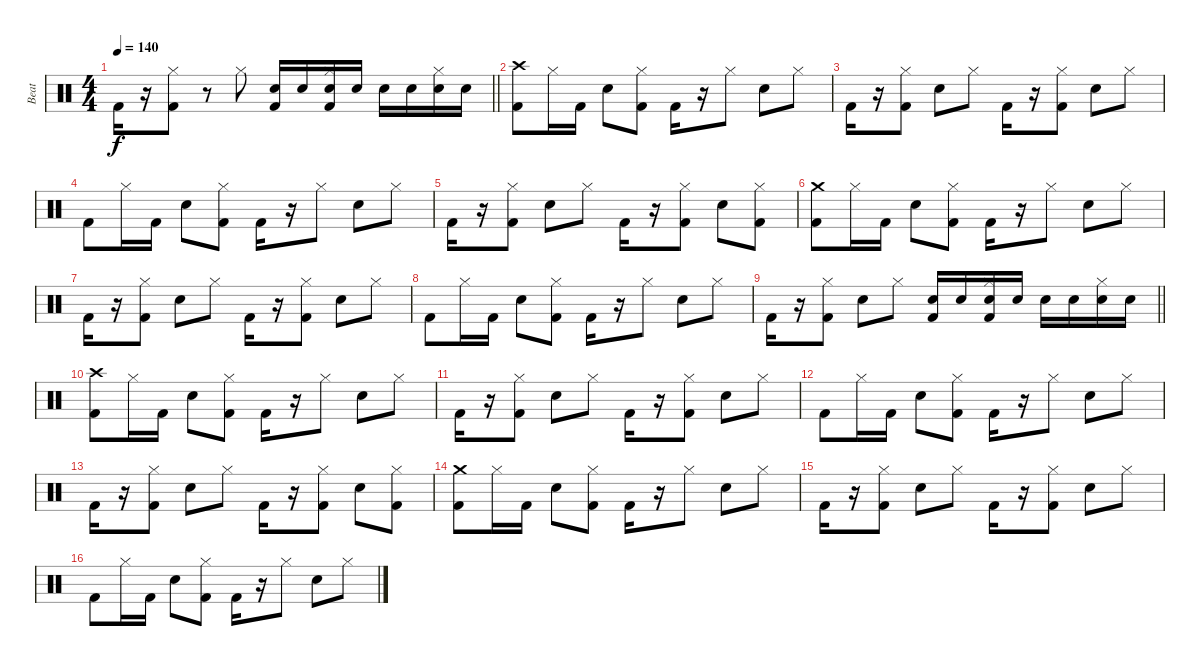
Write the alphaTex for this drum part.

\track ("Beat" "Beat") {instrument percussion}
\staff {score}
\articulation defaults
\ts (4 4)
\tempo 140
\clef neutral
\barLineRight lightlight
\ks c "Kick (hit) 2".16{dy f}
r.16 ("Kick (hit) 2" "Hi-Hat (closed)").8 r.8 "Hi-Hat (closed)".8 ("Kick (hit) 2" "Snare (hit) 2").16 "Snare (hit) 2".16 ("Kick (hit) 2" "Hi-Hat (closed)" "Snare (hit) 2").16 "Snare (hit) 2".16 "Snare (hit) 2".16 "Snare (hit) 2".16 ("Hi-Hat (closed)" "Snare (hit) 2").16 "Snare (hit) 2".16 |
\section ("" " ")
("Kick (hit) 2" "Crash high (hit)").8 "Hi-Hat (closed)".16 "Kick (hit) 2".16 "Snare (hit) 2".8 ("Kick (hit) 2" "Hi-Hat (closed)").8 "Kick (hit) 2".16 r.16 "Hi-Hat (closed)".8 "Snare (hit) 2".8 "Hi-Hat (closed)".8 |
"Kick (hit) 2".16 r.16 ("Kick (hit) 2" "Hi-Hat (closed)").8 "Snare (hit) 2".8 "Hi-Hat (closed)".8 "Kick (hit) 2".16 r.16 ("Kick (hit) 2" "Hi-Hat (closed)").8 "Snare (hit) 2".8 "Hi-Hat (closed)".8 |
"Kick (hit) 2".8 "Hi-Hat (closed)".16 "Kick (hit) 2".16 "Snare (hit) 2".8 ("Kick (hit) 2" "Hi-Hat (closed)").8 "Kick (hit) 2".16 r.16 "Hi-Hat (closed)".8 "Snare (hit) 2".8 "Hi-Hat (closed)".8 |
"Kick (hit) 2".16 r.16 ("Kick (hit) 2" "Hi-Hat (closed)").8 "Snare (hit) 2".8 "Hi-Hat (closed)".8 "Kick (hit) 2".16 r.16 ("Kick (hit) 2" "Hi-Hat (closed)").8 "Snare (hit) 2".8 ("Kick (hit) 2" "Hi-Hat (closed)").8 |
("Kick (hit) 2" "Crash medium (hit)").8 "Hi-Hat (closed)".16 "Kick (hit) 2".16 "Snare (hit) 2".8 ("Kick (hit) 2" "Hi-Hat (closed)").8 "Kick (hit) 2".16 r.16 "Hi-Hat (closed)".8 "Snare (hit) 2".8 "Hi-Hat (closed)".8 |
"Kick (hit) 2".16 r.16 ("Kick (hit) 2" "Hi-Hat (closed)").8 "Snare (hit) 2".8 "Hi-Hat (closed)".8 "Kick (hit) 2".16 r.16 ("Kick (hit) 2" "Hi-Hat (closed)").8 "Snare (hit) 2".8 "Hi-Hat (closed)".8 |
"Kick (hit) 2".8 "Hi-Hat (closed)".16 "Kick (hit) 2".16 "Snare (hit) 2".8 ("Kick (hit) 2" "Hi-Hat (closed)").8 "Kick (hit) 2".16 r.16 "Hi-Hat (closed)".8 "Snare (hit) 2".8 "Hi-Hat (closed)".8 |
\barLineRight lightlight "Kick (hit) 2".16
r.16 ("Kick (hit) 2" "Hi-Hat (closed)").8 "Snare (hit) 2".8 "Hi-Hat (closed)".8 ("Kick (hit) 2" "Snare (hit) 2").16 "Snare (hit) 2".16 ("Kick (hit) 2" "Hi-Hat (closed)" "Snare (hit) 2").16 "Snare (hit) 2".16 "Snare (hit) 2".16 "Snare (hit) 2".16 ("Hi-Hat (closed)" "Snare (hit) 2").16 "Snare (hit) 2".16 |
\section ("" " ")
("Kick (hit) 2" "Crash high (hit)").8 "Hi-Hat (closed)".16 "Kick (hit) 2".16 "Snare (hit) 2".8 ("Kick (hit) 2" "Hi-Hat (closed)").8 "Kick (hit) 2".16 r.16 "Hi-Hat (closed)".8 "Snare (hit) 2".8 "Hi-Hat (closed)".8 |
"Kick (hit) 2".16 r.16 ("Kick (hit) 2" "Hi-Hat (closed)").8 "Snare (hit) 2".8 "Hi-Hat (closed)".8 "Kick (hit) 2".16 r.16 ("Kick (hit) 2" "Hi-Hat (closed)").8 "Snare (hit) 2".8 "Hi-Hat (closed)".8 |
"Kick (hit) 2".8 "Hi-Hat (closed)".16 "Kick (hit) 2".16 "Snare (hit) 2".8 ("Kick (hit) 2" "Hi-Hat (closed)").8 "Kick (hit) 2".16 r.16 "Hi-Hat (closed)".8 "Snare (hit) 2".8 "Hi-Hat (closed)".8 |
"Kick (hit) 2".16 r.16 ("Kick (hit) 2" "Hi-Hat (closed)").8 "Snare (hit) 2".8 "Hi-Hat (closed)".8 "Kick (hit) 2".16 r.16 ("Kick (hit) 2" "Hi-Hat (closed)").8 "Snare (hit) 2".8 ("Kick (hit) 2" "Hi-Hat (closed)").8 |
("Kick (hit) 2" "Crash medium (hit)").8 "Hi-Hat (closed)".16 "Kick (hit) 2".16 "Snare (hit) 2".8 ("Kick (hit) 2" "Hi-Hat (closed)").8 "Kick (hit) 2".16 r.16 "Hi-Hat (closed)".8 "Snare (hit) 2".8 "Hi-Hat (closed)".8 |
"Kick (hit) 2".16 r.16 ("Kick (hit) 2" "Hi-Hat (closed)").8 "Snare (hit) 2".8 "Hi-Hat (closed)".8 "Kick (hit) 2".16 r.16 ("Kick (hit) 2" "Hi-Hat (closed)").8 "Snare (hit) 2".8 "Hi-Hat (closed)".8 |
"Kick (hit) 2".8 "Hi-Hat (closed)".16 "Kick (hit) 2".16 "Snare (hit) 2".8 ("Kick (hit) 2" "Hi-Hat (closed)").8 "Kick (hit) 2".16 r.16 "Hi-Hat (closed)".8 "Snare (hit) 2".8 "Hi-Hat (closed)".8
